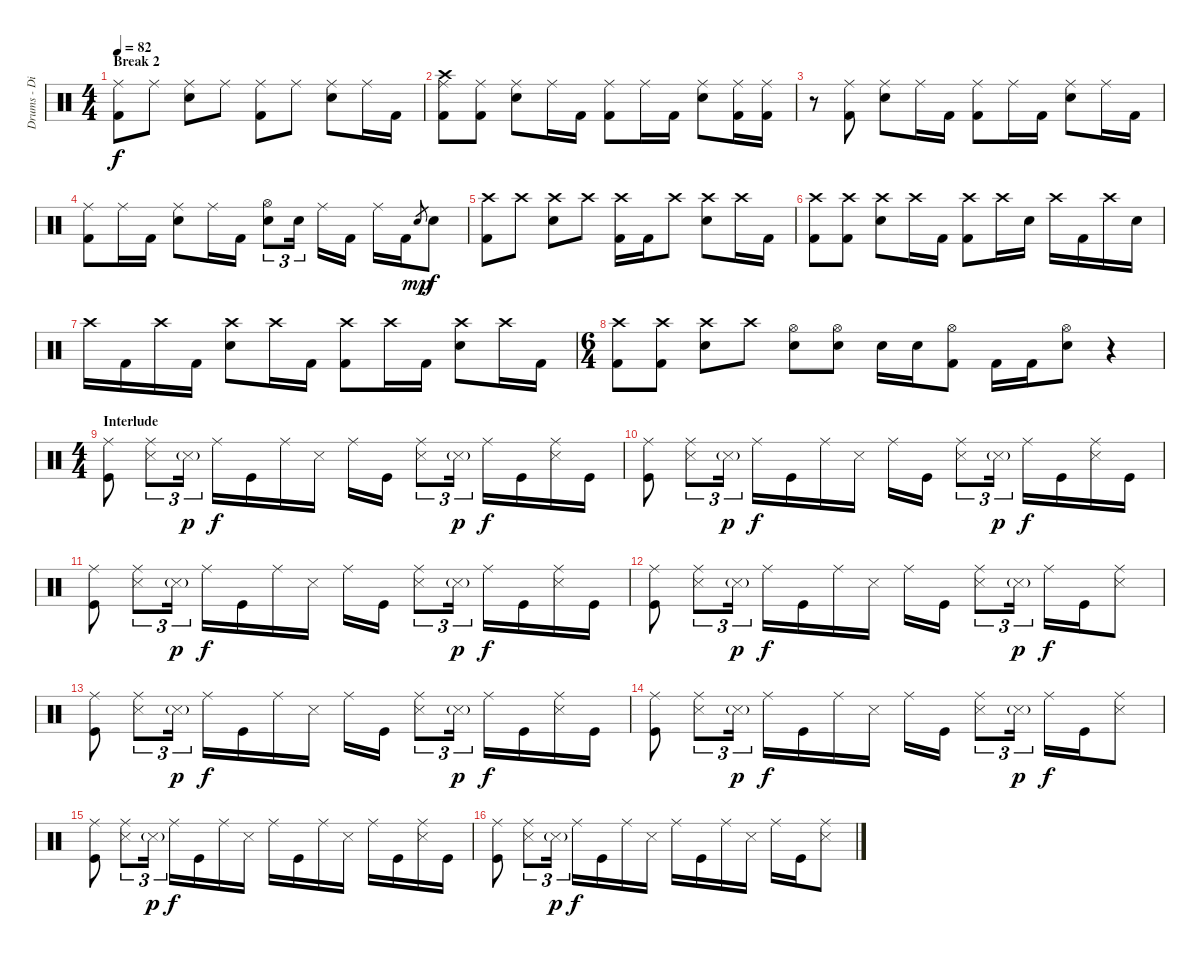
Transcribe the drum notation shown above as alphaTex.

\track ("Drums - Dino Campanella" "Drums - Di") {instrument percussion}
\staff {score}
\articulation defaults
\ts (4 4)
\section ("" "Break 2")
\tempo 82
\clef neutral
\ks c
("Ride (middle)" "Kick (hit) 2").8{dy f} "Ride (middle)".8 ("Ride (middle)" "Electric Snare (hit)").8 "Ride (middle)".8 ("Ride (middle)" "Kick (hit) 2").8 "Ride (middle)".8 ("Ride (middle)" "Electric Snare (hit)").8 "Ride (middle)".16 "Kick (hit) 2".16 |
("Crash high (hit)" "Ride (middle)" "Kick (hit) 2").8 ("Ride (middle)" "Kick (hit) 2").8 ("Ride (middle)" "Electric Snare (hit)").8 "Ride (middle)".16 "Kick (hit) 2".16 ("Ride (middle)" "Kick (hit) 2").8 "Ride (middle)".16 "Kick (hit) 2".16 ("Ride (middle)" "Electric Snare (hit)").8 ("Ride (middle)" "Kick (hit) 2").16 ("Ride (middle)" "Kick (hit) 2").16 |
r.8 ("Ride (middle)" "Kick (hit) 2").8 ("Ride (middle)" "Electric Snare (hit)").8 "Ride (middle)".16 "Kick (hit) 2".16 ("Ride (middle)" "Kick (hit) 2").8 "Ride (middle)".16 "Kick (hit) 2".16 ("Ride (middle)" "Electric Snare (hit)").8 "Ride (middle)".16 "Kick (hit) 2".16 |
("Ride (middle)" "Kick (hit) 2").8 "Ride (middle)".16 "Kick (hit) 2".16 ("Ride (middle)" "Electric Snare (hit)").8 "Ride (middle)".16 "Kick (hit) 2".16 ("Hi-Hat (open)" "Electric Snare (hit)").8{tu (3 2)} "Electric Snare (hit)".16{tu (3 2)} "Ride (middle)".16 "Kick (hit) 2".16 "Ride (middle)".16 "Kick (hit) 2".16 "Electric Snare (hit)".8{gr dy mp} "Electric Snare (hit)".8{dy f} |
("Crash high (hit)" "Kick (hit) 2").8 "Crash high (hit)".8 ("Crash high (hit)" "Electric Snare (hit)").8 "Crash high (hit)".8 ("Crash high (hit)" "Kick (hit) 2").16 "Kick (hit) 2".16 "Crash high (hit)".8 ("Crash high (hit)" "Electric Snare (hit)").8 "Crash high (hit)".16 "Kick (hit) 2".16 |
("Crash high (hit)" "Kick (hit) 2").8 ("Crash high (hit)" "Kick (hit) 2").8 ("Crash high (hit)" "Electric Snare (hit)").8 "Crash high (hit)".16 "Kick (hit) 2".16 ("Crash high (hit)" "Kick (hit) 2").8 "Crash high (hit)".16 "Electric Snare (hit)".16 "Crash high (hit)".16 "Kick (hit) 2".16 "Crash high (hit)".16 "Electric Snare (hit)".16 |
"Crash high (hit)".16 "Kick (hit) 2".16 "Crash high (hit)".16 "Kick (hit) 2".16 ("Crash high (hit)" "Electric Snare (hit)").8 "Crash high (hit)".16 "Kick (hit) 2".16 ("Crash high (hit)" "Kick (hit) 2").8 "Crash high (hit)".16 "Kick (hit) 2".16 ("Crash high (hit)" "Electric Snare (hit)").8 "Crash high (hit)".16 "Kick (hit) 2".16 |
\ts (6 4)
("Crash high (hit)" "Kick (hit) 2").8 ("Crash high (hit)" "Kick (hit) 2").8 ("Crash high (hit)" "Electric Snare (hit)").8 "Crash high (hit)".8 ("Hi-Hat (open)" "Electric Snare (hit)").8 ("Hi-Hat (open)" "Electric Snare (hit)").8 "Electric Snare (hit)".16 "Electric Snare (hit)".16 ("Hi-Hat (open)" "Kick (hit) 2").8 "Kick (hit) 2".16 "Kick (hit) 2".16 ("Hi-Hat (open)" "Electric Snare (hit)").8 r.4 |
\ts (4 4)
\section ("" "Interlude")
("Ride (middle)" "Kick (hit)").8 ("Ride (middle)" "Snare (side stick) 3").8{tu (3 2)} "Snare (side stick) 3"{g}.16{tu (3 2) dy p} "Ride (middle)".16{dy f} "Kick (hit)".16 "Ride (middle)".16 "Snare (side stick) 3".16 "Ride (middle)".16 "Kick (hit)".16 ("Ride (middle)" "Snare (side stick) 3").8{tu (3 2)} "Snare (side stick) 3"{g}.16{tu (3 2) dy p} "Ride (middle)".16{dy f} "Kick (hit)".16 ("Ride (middle)" "Snare (side stick) 3").16 "Kick (hit)".16 |
("Ride (middle)" "Kick (hit)").8 ("Ride (middle)" "Snare (side stick) 3").8{tu (3 2)} "Snare (side stick) 3"{g}.16{tu (3 2) dy p} "Ride (middle)".16{dy f} "Kick (hit)".16 "Ride (middle)".16 "Snare (side stick) 3".16 "Ride (middle)".16 "Kick (hit)".16 ("Ride (middle)" "Snare (side stick) 3").8{tu (3 2)} "Snare (side stick) 3"{g}.16{tu (3 2) dy p} "Ride (middle)".16{dy f} "Kick (hit)".16 ("Ride (middle)" "Snare (side stick) 3").16 "Kick (hit)".16 |
("Ride (middle)" "Kick (hit)").8 ("Ride (middle)" "Snare (side stick) 3").8{tu (3 2)} "Snare (side stick) 3"{g}.16{tu (3 2) dy p} "Ride (middle)".16{dy f} "Kick (hit)".16 "Ride (middle)".16 "Snare (side stick) 3".16 "Ride (middle)".16 "Kick (hit)".16 ("Ride (middle)" "Snare (side stick) 3").8{tu (3 2)} "Snare (side stick) 3"{g}.16{tu (3 2) dy p} "Ride (middle)".16{dy f} "Kick (hit)".16 ("Ride (middle)" "Snare (side stick) 3").16 "Kick (hit)".16 |
("Ride (middle)" "Kick (hit)").8 ("Ride (middle)" "Snare (side stick) 3").8{tu (3 2)} "Snare (side stick) 3"{g}.16{tu (3 2) dy p} "Ride (middle)".16{dy f} "Kick (hit)".16 "Ride (middle)".16 "Snare (side stick) 3".16 "Ride (middle)".16 "Kick (hit)".16 ("Ride (middle)" "Snare (side stick) 3").8{tu (3 2)} "Snare (side stick) 3"{g}.16{tu (3 2) dy p} "Ride (middle)".16{dy f} "Kick (hit)".16 ("Ride (middle)" "Snare (side stick) 3").8 |
("Ride (middle)" "Kick (hit)").8 ("Ride (middle)" "Snare (side stick) 3").8{tu (3 2)} "Snare (side stick) 3"{g}.16{tu (3 2) dy p} "Ride (middle)".16{dy f} "Kick (hit)".16 "Ride (middle)".16 "Snare (side stick) 3".16 "Ride (middle)".16 "Kick (hit)".16 ("Ride (middle)" "Snare (side stick) 3").8{tu (3 2)} "Snare (side stick) 3"{g}.16{tu (3 2) dy p} "Ride (middle)".16{dy f} "Kick (hit)".16 ("Ride (middle)" "Snare (side stick) 3").16 "Kick (hit)".16 |
("Ride (middle)" "Kick (hit)").8 ("Ride (middle)" "Snare (side stick) 3").8{tu (3 2)} "Snare (side stick) 3"{g}.16{tu (3 2) dy p} "Ride (middle)".16{dy f} "Kick (hit)".16 "Ride (middle)".16 "Snare (side stick) 3".16 "Ride (middle)".16 "Kick (hit)".16 ("Ride (middle)" "Snare (side stick) 3").8{tu (3 2)} "Snare (side stick) 3"{g}.16{tu (3 2) dy p} "Ride (middle)".16{dy f} "Kick (hit)".16 ("Ride (middle)" "Snare (side stick) 3").8 |
("Ride (middle)" "Kick (hit)").8 ("Ride (middle)" "Snare (side stick) 3").8{tu (3 2)} "Snare (side stick) 3"{g}.16{tu (3 2) dy p} "Ride (middle)".16{dy f} "Kick (hit)".16 "Ride (middle)".16 "Snare (side stick) 3".16 "Ride (middle)".16 "Kick (hit)".16 "Ride (middle)".16 "Snare (side stick) 3".16 "Ride (middle)".16 "Kick (hit)".16 ("Ride (middle)" "Snare (side stick) 3").16 "Kick (hit)".16 |
("Ride (middle)" "Kick (hit)").8 ("Ride (middle)" "Snare (side stick) 3").8{tu (3 2)} "Snare (side stick) 3"{g}.16{tu (3 2) dy p} "Ride (middle)".16{dy f} "Kick (hit)".16 "Ride (middle)".16 "Snare (side stick) 3".16 "Ride (middle)".16 "Kick (hit)".16 "Ride (middle)".16 "Snare (side stick) 3".16 "Ride (middle)".16 "Kick (hit)".16 ("Ride (middle)" "Snare (side stick) 3").8
